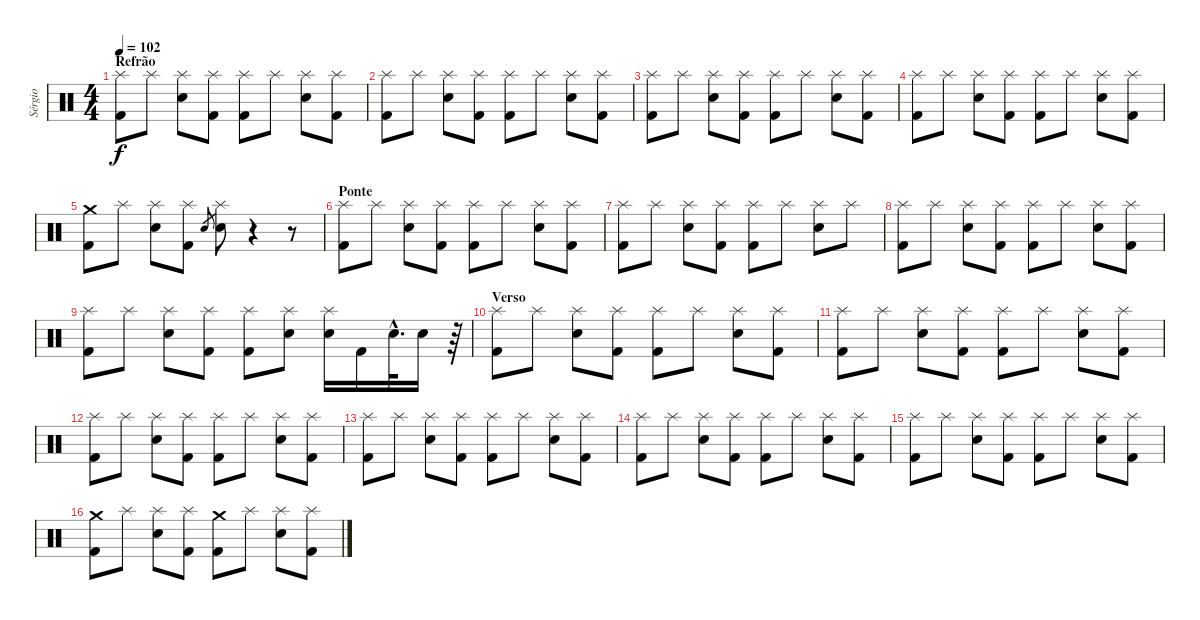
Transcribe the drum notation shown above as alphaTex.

\track ("Sérgio" "Sérgio") {instrument percussion}
\staff {score}
\articulation defaults
\ts (4 4)
\section ("" "Refrão")
\tempo 102
\clef neutral
\ks c
("Splash (hit)" "Kick (hit) 2").8{dy f} "Splash (hit)".8 ("Splash (hit)" "Snare (hit) 2").8 ("Splash (hit)" "Kick (hit) 2").8 ("Splash (hit)" "Kick (hit) 2").8 "Splash (hit)".8 ("Splash (hit)" "Snare (hit) 2").8 ("Splash (hit)" "Kick (hit) 2").8 |
("Splash (hit)" "Kick (hit) 2").8 "Splash (hit)".8 ("Splash (hit)" "Snare (hit) 2").8 ("Splash (hit)" "Kick (hit) 2").8 ("Splash (hit)" "Kick (hit) 2").8 "Splash (hit)".8 ("Splash (hit)" "Snare (hit) 2").8 ("Splash (hit)" "Kick (hit) 2").8 |
("Splash (hit)" "Kick (hit) 2").8 "Splash (hit)".8 ("Splash (hit)" "Snare (hit) 2").8 ("Splash (hit)" "Kick (hit) 2").8 ("Splash (hit)" "Kick (hit) 2").8 "Splash (hit)".8 ("Splash (hit)" "Snare (hit) 2").8 ("Splash (hit)" "Kick (hit) 2").8 |
("Splash (hit)" "Kick (hit) 2").8 "Splash (hit)".8 ("Splash (hit)" "Snare (hit) 2").8 ("Splash (hit)" "Kick (hit) 2").8 ("Splash (hit)" "Kick (hit) 2").8 "Splash (hit)".8 ("Splash (hit)" "Snare (hit) 2").8 ("Splash (hit)" "Kick (hit) 2").8 |
("Crash medium (hit)" "Kick (hit) 2").8 "Splash (hit)".8 ("Splash (hit)" "Snare (hit) 2").8 ("Splash (hit)" "Kick (hit) 2").8 "Snare (hit) 2".8{gr} ("Splash (hit)" "Snare (hit) 2").8 r.4 r.8 |
\section ("" "Ponte")
("Splash (hit)" "Kick (hit) 2").8 "Splash (hit)".8 ("Splash (hit)" "Snare (hit) 2").8 ("Splash (hit)" "Kick (hit) 2").8 ("Splash (hit)" "Kick (hit) 2").8 "Splash (hit)".8 ("Splash (hit)" "Snare (hit) 2").8 ("Splash (hit)" "Kick (hit) 2").8 |
("Splash (hit)" "Kick (hit) 2").8 "Splash (hit)".8 ("Splash (hit)" "Snare (hit) 2").8 ("Splash (hit)" "Kick (hit) 2").8 ("Splash (hit)" "Kick (hit) 2").8 "Splash (hit)".8 ("Splash (hit)" "Snare (hit) 2").8 "Splash (hit)".8 |
("Splash (hit)" "Kick (hit) 2").8 "Splash (hit)".8 ("Splash (hit)" "Snare (hit) 2").8 ("Splash (hit)" "Kick (hit) 2").8 ("Splash (hit)" "Kick (hit) 2").8 "Splash (hit)".8 ("Splash (hit)" "Snare (hit) 2").8 ("Splash (hit)" "Kick (hit) 2").8 |
("Splash (hit)" "Kick (hit) 2").8 "Splash (hit)".8 ("Splash (hit)" "Snare (hit) 2").8 ("Splash (hit)" "Kick (hit) 2").8 ("Splash (hit)" "Kick (hit) 2").8 ("Splash (hit)" "Snare (hit) 2").8 ("Splash (hit)" "Snare (hit) 2").16 "Kick (hit) 2".16 "Snare (hit) 2"{hac}.32{d} "Snare (hit) 2".16 r.64 |
\section ("" "Verso")
("Splash (hit)" "Kick (hit) 2").8 "Splash (hit)".8 ("Splash (hit)" "Snare (hit) 2").8 ("Splash (hit)" "Kick (hit) 2").8 ("Splash (hit)" "Kick (hit) 2").8 "Splash (hit)".8 ("Splash (hit)" "Snare (hit) 2").8 ("Splash (hit)" "Kick (hit) 2").8 |
("Splash (hit)" "Kick (hit) 2").8 "Splash (hit)".8 ("Splash (hit)" "Snare (hit) 2").8 ("Splash (hit)" "Kick (hit) 2").8 ("Splash (hit)" "Kick (hit) 2").8 "Splash (hit)".8 ("Splash (hit)" "Snare (hit) 2").8 ("Splash (hit)" "Kick (hit) 2").8 |
("Splash (hit)" "Kick (hit) 2").8 "Splash (hit)".8 ("Splash (hit)" "Snare (hit) 2").8 ("Splash (hit)" "Kick (hit) 2").8 ("Splash (hit)" "Kick (hit) 2").8 "Splash (hit)".8 ("Splash (hit)" "Snare (hit) 2").8 ("Splash (hit)" "Kick (hit) 2").8 |
("Splash (hit)" "Kick (hit) 2").8 "Splash (hit)".8 ("Splash (hit)" "Snare (hit) 2").8 ("Splash (hit)" "Kick (hit) 2").8 ("Splash (hit)" "Kick (hit) 2").8 "Splash (hit)".8 ("Splash (hit)" "Snare (hit) 2").8 ("Splash (hit)" "Kick (hit) 2").8 |
("Splash (hit)" "Kick (hit) 2").8 "Splash (hit)".8 ("Splash (hit)" "Snare (hit) 2").8 ("Splash (hit)" "Kick (hit) 2").8 ("Splash (hit)" "Kick (hit) 2").8 "Splash (hit)".8 ("Splash (hit)" "Snare (hit) 2").8 ("Splash (hit)" "Kick (hit) 2").8 |
("Splash (hit)" "Kick (hit) 2").8 "Splash (hit)".8 ("Splash (hit)" "Snare (hit) 2").8 ("Splash (hit)" "Kick (hit) 2").8 ("Splash (hit)" "Kick (hit) 2").8 "Splash (hit)".8 ("Splash (hit)" "Snare (hit) 2").8 ("Splash (hit)" "Kick (hit) 2").8 |
("Crash medium (hit)" "Kick (hit) 2").8 "Splash (hit)".8 ("Splash (hit)" "Snare (hit) 2").8 ("Splash (hit)" "Kick (hit) 2").8 ("Crash medium (hit)" "Kick (hit) 2").8 "Splash (hit)".8 ("Splash (hit)" "Snare (hit) 2").8 ("Splash (hit)" "Kick (hit) 2").8
